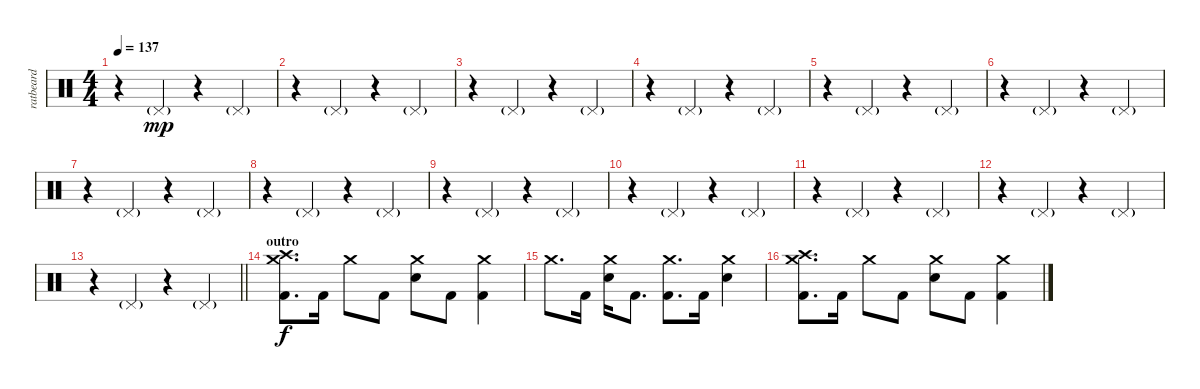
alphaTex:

\track ("ratbeard" "ratbeard") {instrument percussion}
\staff {score}
\articulation defaults
\ts (4 4)
\tempo 137
\clef neutral
\ks c
r.4{dy mp} "Pedal Hi-Hat (hit)"{g}.4 r.4 "Pedal Hi-Hat (hit)"{g}.4 |
r.4 "Pedal Hi-Hat (hit)"{g}.4 r.4 "Pedal Hi-Hat (hit)"{g}.4 |
r.4 "Pedal Hi-Hat (hit)"{g}.4 r.4 "Pedal Hi-Hat (hit)"{g}.4 |
r.4 "Pedal Hi-Hat (hit)"{g}.4 r.4 "Pedal Hi-Hat (hit)"{g}.4 |
r.4 "Pedal Hi-Hat (hit)"{g}.4 r.4 "Pedal Hi-Hat (hit)"{g}.4 |
r.4 "Pedal Hi-Hat (hit)"{g}.4 r.4 "Pedal Hi-Hat (hit)"{g}.4 |
r.4 "Pedal Hi-Hat (hit)"{g}.4 r.4 "Pedal Hi-Hat (hit)"{g}.4 |
r.4 "Pedal Hi-Hat (hit)"{g}.4 r.4 "Pedal Hi-Hat (hit)"{g}.4 |
r.4 "Pedal Hi-Hat (hit)"{g}.4 r.4 "Pedal Hi-Hat (hit)"{g}.4 |
r.4 "Pedal Hi-Hat (hit)"{g}.4 r.4 "Pedal Hi-Hat (hit)"{g}.4 |
r.4 "Pedal Hi-Hat (hit)"{g}.4 r.4 "Pedal Hi-Hat (hit)"{g}.4 |
r.4 "Pedal Hi-Hat (hit)"{g}.4 r.4 "Pedal Hi-Hat (hit)"{g}.4 |
\barLineRight lightlight
r.4 "Pedal Hi-Hat (hit)"{g}.4 r.4 "Pedal Hi-Hat (hit)"{g}.4 |
\section ("" "outro")
("Crash high (hit)" "Crash medium (hit)" "Kick (hit) 2").8{d dy f} "Kick (hit) 2".16 "Crash medium (hit)".8 "Kick (hit) 2".8 ("Crash medium (hit)" "Electric Snare (hit)").8 "Kick (hit) 2".8 ("Crash medium (hit)" "Kick (hit) 2").4 |
"Crash medium (hit)".8{d} "Kick (hit) 2".16 ("Crash medium (hit)" "Electric Snare (hit)").16 "Kick (hit) 2".8{d} ("Crash medium (hit)" "Kick (hit) 2").8{d} "Kick (hit) 2".16 ("Crash medium (hit)" "Electric Snare (hit)").4 |
("Crash high (hit)" "Crash medium (hit)" "Kick (hit) 2").8{d} "Kick (hit) 2".16 "Crash medium (hit)".8 "Kick (hit) 2".8 ("Crash medium (hit)" "Electric Snare (hit)").8 "Kick (hit) 2".8 ("Crash medium (hit)" "Kick (hit) 2").4
